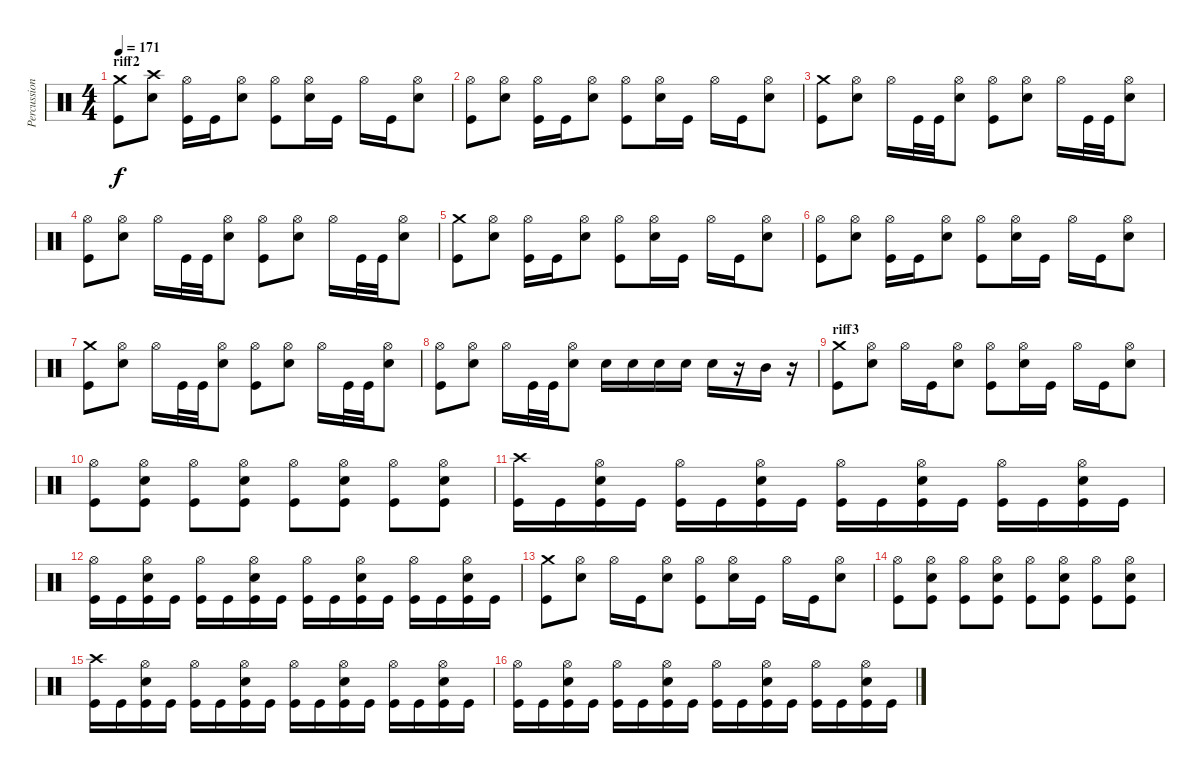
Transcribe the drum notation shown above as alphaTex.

\track ("Percussion" "Percussion") {instrument percussion}
\staff {score}
\articulation defaults
\ts (4 4)
\section ("" "riff2")
\tempo 171
\clef neutral
\ks c
("Kick (hit)" "Crash medium (hit)").8{dy f} ("Crash high (hit)" "Snare (hit) 2").8 ("Kick (hit)" "Hi-Hat (open)").16 "Kick (hit)".16 ("Hi-Hat (open)" "Snare (hit) 2").8 ("Kick (hit)" "Hi-Hat (open)").8 ("Hi-Hat (open)" "Snare (hit) 2").16 "Kick (hit)".16 "Hi-Hat (open)".16 "Kick (hit)".16 ("Hi-Hat (open)" "Snare (hit) 2").8 |
("Kick (hit)" "Hi-Hat (open)").8 ("Hi-Hat (open)" "Snare (hit) 2").8 ("Kick (hit)" "Hi-Hat (open)").16 "Kick (hit)".16 ("Hi-Hat (open)" "Snare (hit) 2").8 ("Kick (hit)" "Hi-Hat (open)").8 ("Hi-Hat (open)" "Snare (hit) 2").16 "Kick (hit)".16 "Hi-Hat (open)".16 "Kick (hit)".16 ("Hi-Hat (open)" "Snare (hit) 2").8 |
("Kick (hit)" "Crash medium (hit)").8 ("Hi-Hat (open)" "Snare (hit) 2").8 "Hi-Hat (open)".16 "Kick (hit)".32 "Kick (hit)".32 ("Hi-Hat (open)" "Snare (hit) 2").8 ("Kick (hit)" "Hi-Hat (open)").8 ("Hi-Hat (open)" "Snare (hit) 2").8 "Hi-Hat (open)".16 "Kick (hit)".32 "Kick (hit)".32 ("Hi-Hat (open)" "Snare (hit) 2").8 |
("Kick (hit)" "Hi-Hat (open)").8 ("Hi-Hat (open)" "Snare (hit) 2").8 "Hi-Hat (open)".16 "Kick (hit)".32 "Kick (hit)".32 ("Hi-Hat (open)" "Snare (hit) 2").8 ("Kick (hit)" "Hi-Hat (open)").8 ("Hi-Hat (open)" "Snare (hit) 2").8 "Hi-Hat (open)".16 "Kick (hit)".32 "Kick (hit)".32 ("Hi-Hat (open)" "Snare (hit) 2").8 |
("Kick (hit)" "Crash medium (hit)").8 ("Hi-Hat (open)" "Snare (hit) 2").8 ("Kick (hit)" "Hi-Hat (open)").16 "Kick (hit)".16 ("Hi-Hat (open)" "Snare (hit) 2").8 ("Kick (hit)" "Hi-Hat (open)").8 ("Hi-Hat (open)" "Snare (hit) 2").16 "Kick (hit)".16 "Hi-Hat (open)".16 "Kick (hit)".16 ("Hi-Hat (open)" "Snare (hit) 2").8 |
("Kick (hit)" "Hi-Hat (open)").8 ("Hi-Hat (open)" "Snare (hit) 2").8 ("Kick (hit)" "Hi-Hat (open)").16 "Kick (hit)".16 ("Hi-Hat (open)" "Snare (hit) 2").8 ("Kick (hit)" "Hi-Hat (open)").8 ("Hi-Hat (open)" "Snare (hit) 2").16 "Kick (hit)".16 "Hi-Hat (open)".16 "Kick (hit)".16 ("Hi-Hat (open)" "Snare (hit) 2").8 |
("Kick (hit)" "Crash medium (hit)").8 ("Hi-Hat (open)" "Snare (hit) 2").8 "Hi-Hat (open)".16 "Kick (hit)".32 "Kick (hit)".32 ("Hi-Hat (open)" "Snare (hit) 2").8 ("Kick (hit)" "Hi-Hat (open)").8 ("Hi-Hat (open)" "Snare (hit) 2").8 "Hi-Hat (open)".16 "Kick (hit)".32 "Kick (hit)".32 ("Hi-Hat (open)" "Snare (hit) 2").8 |
("Kick (hit)" "Hi-Hat (open)").8 ("Hi-Hat (open)" "Snare (hit) 2").8 "Hi-Hat (open)".16 "Kick (hit)".32 "Kick (hit)".32 ("Hi-Hat (open)" "Snare (hit) 2").8 "Snare (hit) 2".16 "Snare (hit) 2".16 "Snare (hit) 2".16 "Snare (hit) 2".16 "Snare (hit) 2".16 r.16 "Mid Tom (hit)".16 r.16 |
\section ("" "riff3")
("Kick (hit)" "Crash medium (hit)").8 ("Hi-Hat (open)" "Snare (hit) 2").8 "Hi-Hat (open)".16 "Kick (hit)".16 ("Hi-Hat (open)" "Snare (hit) 2").8 ("Kick (hit)" "Hi-Hat (open)").8 ("Hi-Hat (open)" "Snare (hit) 2").16 "Kick (hit)".16 "Hi-Hat (open)".16 "Kick (hit)".16 ("Hi-Hat (open)" "Snare (hit) 2").8 |
("Kick (hit)" "Hi-Hat (open)").8 ("Kick (hit)" "Hi-Hat (open)" "Snare (hit) 2").8 ("Kick (hit)" "Hi-Hat (open)").8 ("Kick (hit)" "Hi-Hat (open)" "Snare (hit) 2").8 ("Kick (hit)" "Hi-Hat (open)").8 ("Kick (hit)" "Hi-Hat (open)" "Snare (hit) 2").8 ("Kick (hit)" "Hi-Hat (open)").8 ("Kick (hit)" "Hi-Hat (open)" "Snare (hit) 2").8 |
("Kick (hit)" "Crash high (hit)").16 "Kick (hit)".16 ("Kick (hit)" "Hi-Hat (open)" "Snare (hit) 2").16 "Kick (hit)".16 ("Kick (hit)" "Hi-Hat (open)").16 "Kick (hit)".16 ("Kick (hit)" "Hi-Hat (open)" "Snare (hit) 2").16 "Kick (hit)".16 ("Kick (hit)" "Hi-Hat (open)").16 "Kick (hit)".16 ("Kick (hit)" "Hi-Hat (open)" "Snare (hit) 2").16 "Kick (hit)".16 ("Kick (hit)" "Hi-Hat (open)").16 "Kick (hit)".16 ("Kick (hit)" "Hi-Hat (open)" "Snare (hit) 2").16 "Kick (hit)".16 |
("Kick (hit)" "Hi-Hat (open)").16 "Kick (hit)".16 ("Kick (hit)" "Hi-Hat (open)" "Snare (hit) 2").16 "Kick (hit)".16 ("Kick (hit)" "Hi-Hat (open)").16 "Kick (hit)".16 ("Kick (hit)" "Hi-Hat (open)" "Snare (hit) 2").16 "Kick (hit)".16 ("Kick (hit)" "Hi-Hat (open)").16 "Kick (hit)".16 ("Kick (hit)" "Hi-Hat (open)" "Snare (hit) 2").16 "Kick (hit)".16 ("Kick (hit)" "Hi-Hat (open)").16 "Kick (hit)".16 ("Kick (hit)" "Hi-Hat (open)" "Snare (hit) 2").16 "Kick (hit)".16 |
("Kick (hit)" "Crash medium (hit)").8 ("Hi-Hat (open)" "Snare (hit) 2").8 "Hi-Hat (open)".16 "Kick (hit)".16 ("Hi-Hat (open)" "Snare (hit) 2").8 ("Kick (hit)" "Hi-Hat (open)").8 ("Hi-Hat (open)" "Snare (hit) 2").16 "Kick (hit)".16 "Hi-Hat (open)".16 "Kick (hit)".16 ("Hi-Hat (open)" "Snare (hit) 2").8 |
("Kick (hit)" "Hi-Hat (open)").8 ("Kick (hit)" "Hi-Hat (open)" "Snare (hit) 2").8 ("Kick (hit)" "Hi-Hat (open)").8 ("Kick (hit)" "Hi-Hat (open)" "Snare (hit) 2").8 ("Kick (hit)" "Hi-Hat (open)").8 ("Kick (hit)" "Hi-Hat (open)" "Snare (hit) 2").8 ("Kick (hit)" "Hi-Hat (open)").8 ("Kick (hit)" "Hi-Hat (open)" "Snare (hit) 2").8 |
("Kick (hit)" "Crash high (hit)").16 "Kick (hit)".16 ("Kick (hit)" "Hi-Hat (open)" "Snare (hit) 2").16 "Kick (hit)".16 ("Kick (hit)" "Hi-Hat (open)").16 "Kick (hit)".16 ("Kick (hit)" "Hi-Hat (open)" "Snare (hit) 2").16 "Kick (hit)".16 ("Kick (hit)" "Hi-Hat (open)").16 "Kick (hit)".16 ("Kick (hit)" "Hi-Hat (open)" "Snare (hit) 2").16 "Kick (hit)".16 ("Kick (hit)" "Hi-Hat (open)").16 "Kick (hit)".16 ("Kick (hit)" "Hi-Hat (open)" "Snare (hit) 2").16 "Kick (hit)".16 |
("Kick (hit)" "Hi-Hat (open)").16 "Kick (hit)".16 ("Kick (hit)" "Hi-Hat (open)" "Snare (hit) 2").16 "Kick (hit)".16 ("Kick (hit)" "Hi-Hat (open)").16 "Kick (hit)".16 ("Kick (hit)" "Hi-Hat (open)" "Snare (hit) 2").16 "Kick (hit)".16 ("Kick (hit)" "Hi-Hat (open)").16 "Kick (hit)".16 ("Kick (hit)" "Hi-Hat (open)" "Snare (hit) 2").16 "Kick (hit)".16 ("Kick (hit)" "Hi-Hat (open)").16 "Kick (hit)".16 ("Kick (hit)" "Hi-Hat (open)" "Snare (hit) 2").16 "Kick (hit)".16
